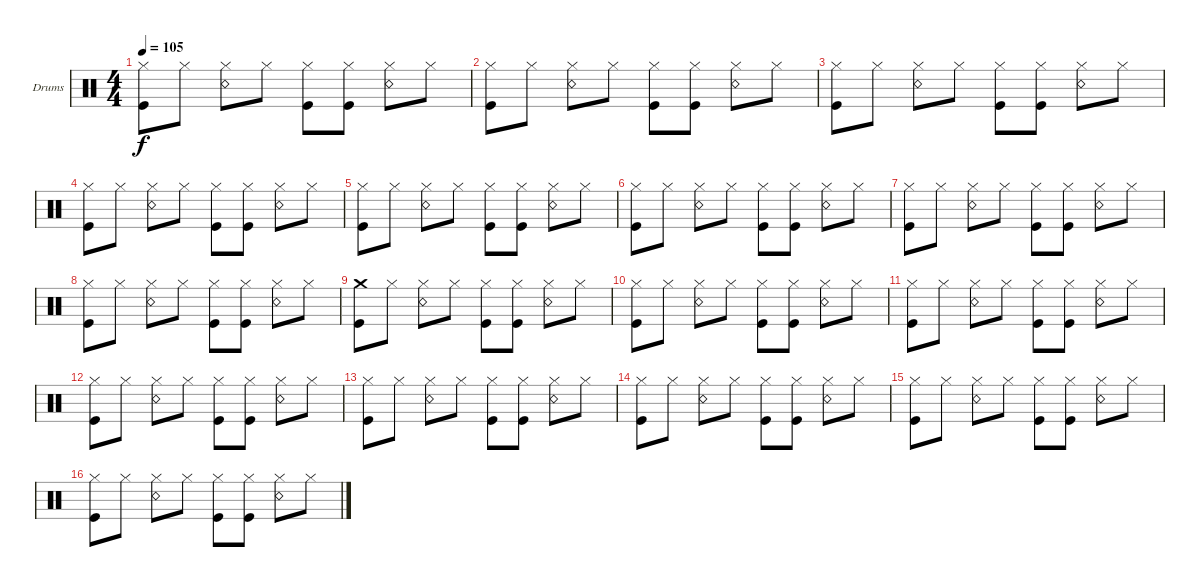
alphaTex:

\defaultSystemsLayout 4
\bracketExtendMode groupsimilarinstruments
\firstSystemTrackNameOrientation horizontal
\otherSystemsTrackNameOrientation horizontal
\track ("Drumkit" "Drums") {instrument percussion}
\staff {score}
\articulation defaults
\ts (4 4)
\tempo 105
\clef neutral
\scale
0.333333
\ks c
("Hi-Hat (closed)" "Kick (hit)").8{dy f} "Hi-Hat (closed)".8 ("Hi-Hat (closed)" "Snare (rim shot)").8 "Hi-Hat (closed)".8 ("Hi-Hat (closed)" "Kick (hit)").8 ("Hi-Hat (closed)" "Kick (hit)").8 ("Hi-Hat (closed)" "Snare (rim shot)").8 "Hi-Hat (closed)".8 |
\scale
0.333333 ("Hi-Hat (closed)" "Kick (hit)").8 "Hi-Hat (closed)".8 ("Hi-Hat (closed)" "Snare (rim shot)").8 "Hi-Hat (closed)".8 ("Hi-Hat (closed)" "Kick (hit)").8 ("Hi-Hat (closed)" "Kick (hit)").8 ("Hi-Hat (closed)" "Snare (rim shot)").8 "Hi-Hat (closed)".8 |
\scale
0.333333 ("Hi-Hat (closed)" "Kick (hit)").8 "Hi-Hat (closed)".8 ("Hi-Hat (closed)" "Snare (rim shot)").8 "Hi-Hat (closed)".8 ("Hi-Hat (closed)" "Kick (hit)").8 ("Hi-Hat (closed)" "Kick (hit)").8 ("Hi-Hat (closed)" "Snare (rim shot)").8 "Hi-Hat (closed)".8 |
\scale
0.333333 ("Hi-Hat (closed)" "Kick (hit)").8 "Hi-Hat (closed)".8 ("Hi-Hat (closed)" "Snare (rim shot)").8 "Hi-Hat (closed)".8 ("Hi-Hat (closed)" "Kick (hit)").8 ("Hi-Hat (closed)" "Kick (hit)").8 ("Hi-Hat (closed)" "Snare (rim shot)").8 "Hi-Hat (closed)".8 |
\scale
0.333333 ("Hi-Hat (closed)" "Kick (hit)").8 "Hi-Hat (closed)".8 ("Hi-Hat (closed)" "Snare (rim shot)").8 "Hi-Hat (closed)".8 ("Hi-Hat (closed)" "Kick (hit)").8 ("Hi-Hat (closed)" "Kick (hit)").8 ("Hi-Hat (closed)" "Snare (rim shot)").8 "Hi-Hat (closed)".8 |
\scale
0.333333 ("Hi-Hat (closed)" "Kick (hit)").8 "Hi-Hat (closed)".8 ("Hi-Hat (closed)" "Snare (rim shot)").8 "Hi-Hat (closed)".8 ("Hi-Hat (closed)" "Kick (hit)").8 ("Hi-Hat (closed)" "Kick (hit)").8 ("Hi-Hat (closed)" "Snare (rim shot)").8 "Hi-Hat (closed)".8 |
\scale
0.333333 ("Hi-Hat (closed)" "Kick (hit)").8 "Hi-Hat (closed)".8 ("Hi-Hat (closed)" "Snare (rim shot)").8 "Hi-Hat (closed)".8 ("Hi-Hat (closed)" "Kick (hit)").8 ("Hi-Hat (closed)" "Kick (hit)").8 ("Hi-Hat (closed)" "Snare (rim shot)").8 "Hi-Hat (closed)".8 |
\scale
0.333333 ("Hi-Hat (closed)" "Kick (hit)").8 "Hi-Hat (closed)".8 ("Hi-Hat (closed)" "Snare (rim shot)").8 "Hi-Hat (closed)".8 ("Hi-Hat (closed)" "Kick (hit)").8 ("Hi-Hat (closed)" "Kick (hit)").8 ("Hi-Hat (closed)" "Snare (rim shot)").8 "Hi-Hat (closed)".8 |
\scale
0.333333 ("Kick (hit)" "Crash medium (hit)").8 "Hi-Hat (closed)".8 ("Hi-Hat (closed)" "Snare (rim shot)").8 "Hi-Hat (closed)".8 ("Hi-Hat (closed)" "Kick (hit)").8 ("Hi-Hat (closed)" "Kick (hit)").8 ("Hi-Hat (closed)" "Snare (rim shot)").8 "Hi-Hat (closed)".8 |
\scale
0.333333 ("Hi-Hat (closed)" "Kick (hit)").8 "Hi-Hat (closed)".8 ("Hi-Hat (closed)" "Snare (rim shot)").8 "Hi-Hat (closed)".8 ("Hi-Hat (closed)" "Kick (hit)").8 ("Hi-Hat (closed)" "Kick (hit)").8 ("Hi-Hat (closed)" "Snare (rim shot)").8 "Hi-Hat (closed)".8 |
\scale
0.333333 ("Hi-Hat (closed)" "Kick (hit)").8 "Hi-Hat (closed)".8 ("Hi-Hat (closed)" "Snare (rim shot)").8 "Hi-Hat (closed)".8 ("Hi-Hat (closed)" "Kick (hit)").8 ("Hi-Hat (closed)" "Kick (hit)").8 ("Hi-Hat (closed)" "Snare (rim shot)").8 "Hi-Hat (closed)".8 |
\scale
0.333333 ("Hi-Hat (closed)" "Kick (hit)").8 "Hi-Hat (closed)".8 ("Hi-Hat (closed)" "Snare (rim shot)").8 "Hi-Hat (closed)".8 ("Hi-Hat (closed)" "Kick (hit)").8 ("Hi-Hat (closed)" "Kick (hit)").8 ("Hi-Hat (closed)" "Snare (rim shot)").8 "Hi-Hat (closed)".8 |
\scale
0.333333 ("Hi-Hat (closed)" "Kick (hit)").8 "Hi-Hat (closed)".8 ("Hi-Hat (closed)" "Snare (rim shot)").8 "Hi-Hat (closed)".8 ("Hi-Hat (closed)" "Kick (hit)").8 ("Hi-Hat (closed)" "Kick (hit)").8 ("Hi-Hat (closed)" "Snare (rim shot)").8 "Hi-Hat (closed)".8 |
\scale
0.333333 ("Hi-Hat (closed)" "Kick (hit)").8 "Hi-Hat (closed)".8 ("Hi-Hat (closed)" "Snare (rim shot)").8 "Hi-Hat (closed)".8 ("Hi-Hat (closed)" "Kick (hit)").8 ("Hi-Hat (closed)" "Kick (hit)").8 ("Hi-Hat (closed)" "Snare (rim shot)").8 "Hi-Hat (closed)".8 |
\scale
0.333333 ("Hi-Hat (closed)" "Kick (hit)").8 "Hi-Hat (closed)".8 ("Hi-Hat (closed)" "Snare (rim shot)").8 "Hi-Hat (closed)".8 ("Hi-Hat (closed)" "Kick (hit)").8 ("Hi-Hat (closed)" "Kick (hit)").8 ("Hi-Hat (closed)" "Snare (rim shot)").8 "Hi-Hat (closed)".8 |
\scale
0.333333 ("Hi-Hat (closed)" "Kick (hit)").8 "Hi-Hat (closed)".8 ("Hi-Hat (closed)" "Snare (rim shot)").8 "Hi-Hat (closed)".8 ("Hi-Hat (closed)" "Kick (hit)").8 ("Hi-Hat (closed)" "Kick (hit)").8 ("Hi-Hat (closed)" "Snare (rim shot)").8 "Hi-Hat (closed)".8
